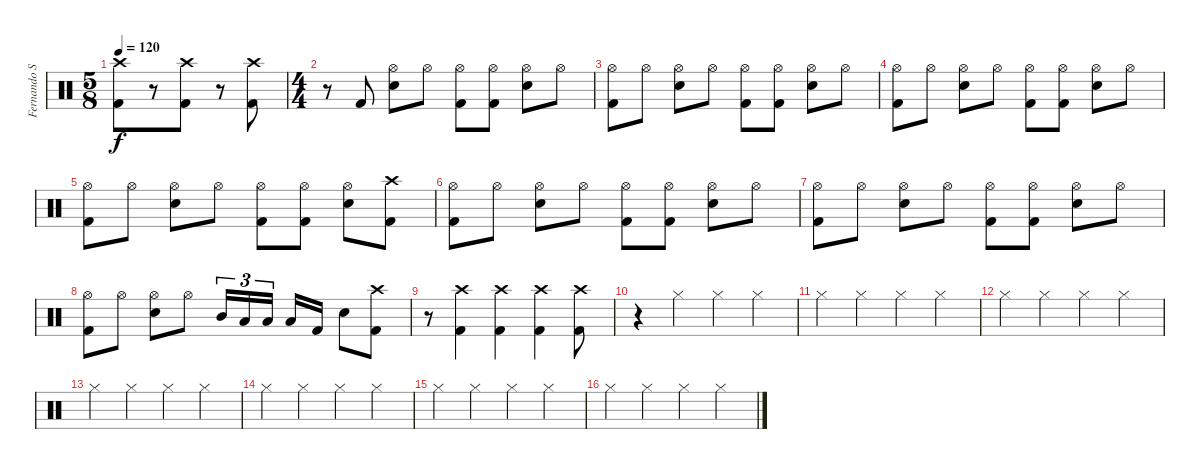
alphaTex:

\track ("Fernando Scarcella" "Fernando S") {instrument percussion}
\staff {score}
\articulation defaults
\ts (5 8)
\tempo 120
\clef neutral
\ks c
("Crash high (hit)" "Kick (hit) 2").8{dy f} r.8 ("Crash high (hit)" "Kick (hit) 2").8 r.8 ("Crash high (hit)" "Kick (hit) 2").8 |
\ts (4 4)
r.8 "Kick (hit) 2".8 ("Hi-Hat (open)" "Snare (hit) 2").8 "Hi-Hat (open)".8 ("Hi-Hat (open)" "Kick (hit) 2").8 ("Hi-Hat (open)" "Kick (hit) 2").8 ("Hi-Hat (open)" "Snare (hit) 2").8 "Hi-Hat (open)".8 |
("Hi-Hat (open)" "Kick (hit) 2").8 "Hi-Hat (open)".8 ("Hi-Hat (open)" "Snare (hit) 2").8 "Hi-Hat (open)".8 ("Hi-Hat (open)" "Kick (hit) 2").8 ("Hi-Hat (open)" "Kick (hit) 2").8 ("Hi-Hat (open)" "Snare (hit) 2").8 "Hi-Hat (open)".8 |
("Hi-Hat (open)" "Kick (hit) 2").8 "Hi-Hat (open)".8 ("Hi-Hat (open)" "Snare (hit) 2").8 "Hi-Hat (open)".8 ("Hi-Hat (open)" "Kick (hit) 2").8 ("Hi-Hat (open)" "Kick (hit) 2").8 ("Hi-Hat (open)" "Snare (hit) 2").8 "Hi-Hat (open)".8 |
("Hi-Hat (open)" "Kick (hit) 2").8 "Hi-Hat (open)".8 ("Hi-Hat (open)" "Snare (hit) 2").8 "Hi-Hat (open)".8 ("Hi-Hat (open)" "Kick (hit) 2").8 ("Hi-Hat (open)" "Kick (hit) 2").8 ("Hi-Hat (open)" "Snare (hit) 2").8 ("Crash high (hit)" "Kick (hit) 2").8 |
("Hi-Hat (open)" "Kick (hit) 2").8 "Hi-Hat (open)".8 ("Hi-Hat (open)" "Snare (hit) 2").8 "Hi-Hat (open)".8 ("Hi-Hat (open)" "Kick (hit) 2").8 ("Hi-Hat (open)" "Kick (hit) 2").8 ("Hi-Hat (open)" "Snare (hit) 2").8 "Hi-Hat (open)".8 |
("Hi-Hat (open)" "Kick (hit) 2").8 "Hi-Hat (open)".8 ("Hi-Hat (open)" "Snare (hit) 2").8 "Hi-Hat (open)".8 ("Hi-Hat (open)" "Kick (hit) 2").8 ("Hi-Hat (open)" "Kick (hit) 2").8 ("Hi-Hat (open)" "Snare (hit) 2").8 "Hi-Hat (open)".8 |
("Hi-Hat (open)" "Kick (hit) 2").8 "Hi-Hat (open)".8 ("Hi-Hat (open)" "Snare (hit) 2").8 "Hi-Hat (open)".8 "Mid Tom (hit)".16{tu (3 2)} "Low Tom (hit)".16{tu (3 2)} "Low Tom (hit)".16{tu (3 2)} "Low Tom (hit)".16 "Kick (hit) 2".16 "Snare (hit) 2".8 ("Crash high (hit)" "Kick (hit) 2").8 |
r.8 ("Crash high (hit)" "Kick (hit) 2").4 ("Crash high (hit)" "Kick (hit) 2").4 ("Crash high (hit)" "Kick (hit) 2").4 ("Crash high (hit)" "Kick (hit) 2").8 |
r.4 "Hi-Hat (closed)".4 "Hi-Hat (closed)".4 "Hi-Hat (closed)".4 |
"Hi-Hat (closed)".4 "Hi-Hat (closed)".4 "Hi-Hat (closed)".4 "Hi-Hat (closed)".4 |
"Hi-Hat (closed)".4 "Hi-Hat (closed)".4 "Hi-Hat (closed)".4 "Hi-Hat (closed)".4 |
"Hi-Hat (closed)".4 "Hi-Hat (closed)".4 "Hi-Hat (closed)".4 "Hi-Hat (closed)".4 |
"Hi-Hat (closed)".4 "Hi-Hat (closed)".4 "Hi-Hat (closed)".4 "Hi-Hat (closed)".4 |
"Hi-Hat (closed)".4 "Hi-Hat (closed)".4 "Hi-Hat (closed)".4 "Hi-Hat (closed)".4 |
"Hi-Hat (closed)".4 "Hi-Hat (closed)".4 "Hi-Hat (closed)".4 "Hi-Hat (closed)".4
